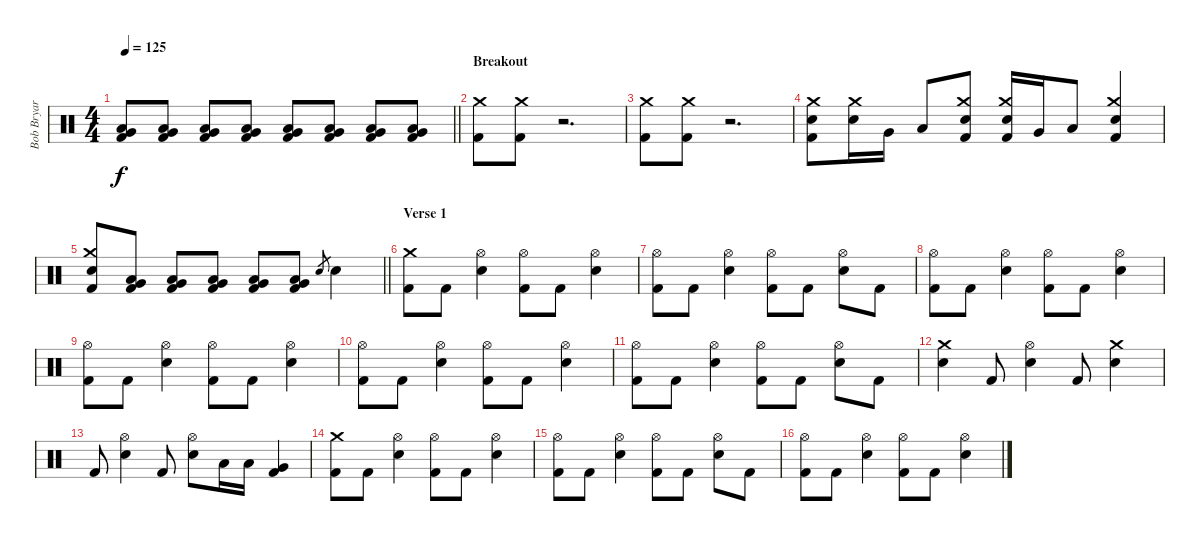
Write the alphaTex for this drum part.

\track ("Bob Bryar" "Bob Bryar") {instrument percussion}
\staff {score}
\articulation defaults
\ts (4 4)
\tempo 125
\clef neutral
\barLineRight lightlight
\ks c
("Very Low Tom (hit)" "Low Floor Tom (hit)" "Kick (hit) 2").8{dy f} ("Very Low Tom (hit)" "Low Floor Tom (hit)" "Kick (hit) 2").8 ("Very Low Tom (hit)" "Low Floor Tom (hit)" "Kick (hit) 2").8 ("Very Low Tom (hit)" "Low Floor Tom (hit)" "Kick (hit) 2").8 ("Very Low Tom (hit)" "Low Floor Tom (hit)" "Kick (hit) 2").8 ("Very Low Tom (hit)" "Low Floor Tom (hit)" "Kick (hit) 2").8 ("Very Low Tom (hit)" "Low Floor Tom (hit)" "Kick (hit) 2").8 ("Very Low Tom (hit)" "Low Floor Tom (hit)" "Kick (hit) 2").8 |
\section ("" "Breakout")
("Crash medium (hit)" "Kick (hit) 2").8 ("Crash medium (hit)" "Kick (hit) 2").8 r.2{d} |
("Crash medium (hit)" "Kick (hit) 2").8 ("Crash medium (hit)" "Kick (hit) 2").8 r.2{d} |
("Crash medium (hit)" "Electric Snare (hit)" "Kick (hit) 2").8 ("Crash medium (hit)" "Electric Snare (hit)").16 "Very Low Tom (hit)".16 "Low Floor Tom (hit)".8 ("Crash medium (hit)" "Electric Snare (hit)" "Kick (hit) 2").8 ("Crash medium (hit)" "Electric Snare (hit)" "Kick (hit) 2").16 "Very Low Tom (hit)".16 "Low Floor Tom (hit)".8 ("Crash medium (hit)" "Electric Snare (hit)" "Kick (hit) 2").4 |
\barLineRight lightlight
("Crash medium (hit)" "Electric Snare (hit)" "Kick (hit) 2").8 ("Very Low Tom (hit)" "Low Floor Tom (hit)" "Kick (hit) 2").8 ("Very Low Tom (hit)" "Low Floor Tom (hit)" "Kick (hit) 2").8 ("Very Low Tom (hit)" "Low Floor Tom (hit)" "Kick (hit) 2").8 ("Very Low Tom (hit)" "Low Floor Tom (hit)" "Kick (hit) 2").8 ("Very Low Tom (hit)" "Low Floor Tom (hit)" "Kick (hit) 2").8 "Electric Snare (hit)".8{gr} "Electric Snare (hit)".4 |
\section ("" "Verse 1")
("Crash medium (hit)" "Kick (hit) 2").8 "Kick (hit) 2".8 ("Hi-Hat (open)" "Electric Snare (hit)").4 ("Hi-Hat (open)" "Kick (hit) 2").8 "Kick (hit) 2".8 ("Hi-Hat (open)" "Electric Snare (hit)").4 |
("Hi-Hat (open)" "Kick (hit) 2").8 "Kick (hit) 2".8 ("Hi-Hat (open)" "Electric Snare (hit)").4 ("Hi-Hat (open)" "Kick (hit) 2").8 "Kick (hit) 2".8 ("Hi-Hat (open)" "Electric Snare (hit)").8 "Kick (hit) 2".8 |
("Hi-Hat (open)" "Kick (hit) 2").8 "Kick (hit) 2".8 ("Hi-Hat (open)" "Electric Snare (hit)").4 ("Hi-Hat (open)" "Kick (hit) 2").8 "Kick (hit) 2".8 ("Hi-Hat (open)" "Electric Snare (hit)").4 |
("Hi-Hat (open)" "Kick (hit) 2").8 "Kick (hit) 2".8 ("Hi-Hat (open)" "Electric Snare (hit)").4 ("Hi-Hat (open)" "Kick (hit) 2").8 "Kick (hit) 2".8 ("Hi-Hat (open)" "Electric Snare (hit)").4 |
("Hi-Hat (open)" "Kick (hit) 2").8 "Kick (hit) 2".8 ("Hi-Hat (open)" "Electric Snare (hit)").4 ("Hi-Hat (open)" "Kick (hit) 2").8 "Kick (hit) 2".8 ("Hi-Hat (open)" "Electric Snare (hit)").4 |
("Hi-Hat (open)" "Kick (hit) 2").8 "Kick (hit) 2".8 ("Hi-Hat (open)" "Electric Snare (hit)").4 ("Hi-Hat (open)" "Kick (hit) 2").8 "Kick (hit) 2".8 ("Hi-Hat (open)" "Electric Snare (hit)").8 "Kick (hit) 2".8 |
("Crash medium (hit)" "Electric Snare (hit)").4 "Kick (hit) 2".8 ("Hi-Hat (open)" "Electric Snare (hit)").4 "Kick (hit) 2".8 ("Crash medium (hit)" "Electric Snare (hit)").4 |
"Kick (hit) 2".8 ("Hi-Hat (open)" "Electric Snare (hit)").4 "Kick (hit) 2".8 ("Hi-Hat (open)" "Electric Snare (hit)").8 "Low Floor Tom (hit)".16 "Low Floor Tom (hit)".16 ("Very Low Tom (hit)" "Kick (hit) 2").4 |
("Crash medium (hit)" "Kick (hit) 2").8 "Kick (hit) 2".8 ("Hi-Hat (open)" "Electric Snare (hit)").4 ("Hi-Hat (open)" "Kick (hit) 2").8 "Kick (hit) 2".8 ("Hi-Hat (open)" "Electric Snare (hit)").4 |
("Hi-Hat (open)" "Kick (hit) 2").8 "Kick (hit) 2".8 ("Hi-Hat (open)" "Electric Snare (hit)").4 ("Hi-Hat (open)" "Kick (hit) 2").8 "Kick (hit) 2".8 ("Hi-Hat (open)" "Electric Snare (hit)").8 "Kick (hit) 2".8 |
("Hi-Hat (open)" "Kick (hit) 2").8 "Kick (hit) 2".8 ("Hi-Hat (open)" "Electric Snare (hit)").4 ("Hi-Hat (open)" "Kick (hit) 2").8 "Kick (hit) 2".8 ("Hi-Hat (open)" "Electric Snare (hit)").4
